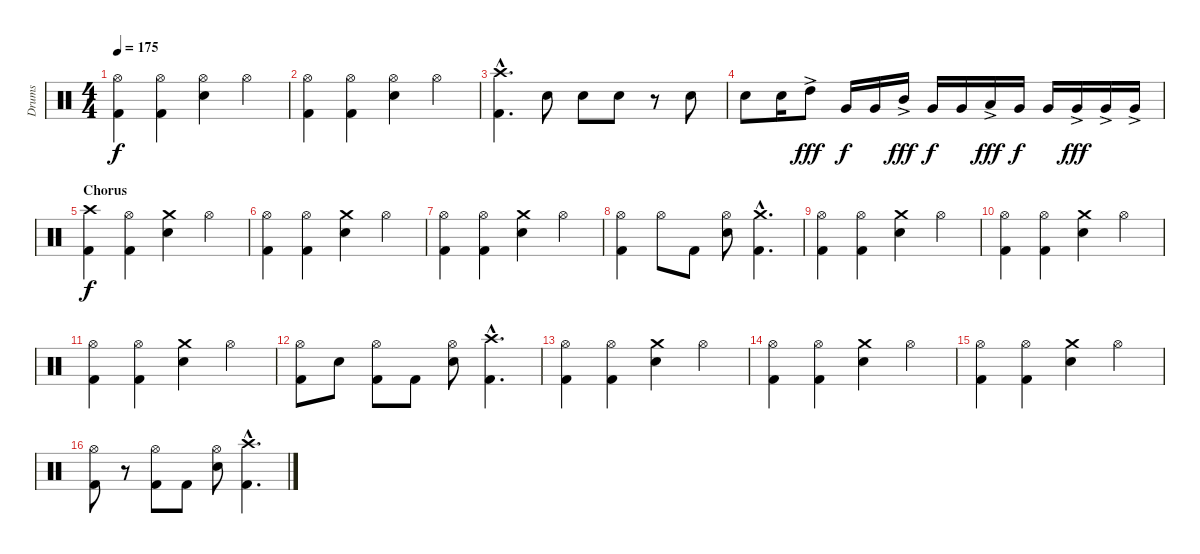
\track ("Drums" "Drums") {instrument percussion}
\staff {score}
\articulation defaults
\ts (4 4)
\tempo 175
\clef neutral
\ks c
("Hi-Hat (open)" "Kick (hit) 2").4{dy f} ("Hi-Hat (open)" "Kick (hit) 2").4 ("Hi-Hat (open)" "Snare (hit) 2").4 "Hi-Hat (open)".4 |
("Hi-Hat (open)" "Kick (hit) 2").4 ("Hi-Hat (open)" "Kick (hit) 2").4 ("Hi-Hat (open)" "Snare (hit) 2").4 "Hi-Hat (open)".4 |
("Crash high (hit)"{hac} "Kick (hit) 2"{hac}).4{d} "Snare (hit) 2".8 "Snare (hit) 2".8 "Snare (hit) 2".8 r.8 "Snare (hit) 2".8 |
"Snare (hit) 2".8 "Snare (hit) 2".16 "High Tom (hit)"{ac}.8{dy fff} "Very Low Tom (hit)".16{dy f} "Very Low Tom (hit)".16 "Mid Tom (hit)"{ac}.16{dy fff} "Very Low Tom (hit)".16{dy f} "Very Low Tom (hit)".16 "Low Tom (hit)"{ac}.16{dy fff} "Very Low Tom (hit)".16{dy f} "Very Low Tom (hit)".16 "Very Low Tom (hit)"{ac}.16{dy fff} "Very Low Tom (hit)"{ac}.16 "Very Low Tom (hit)"{ac}.16 |
\section ("" "Chorus")
("Crash high (hit)" "Kick (hit) 2").4{dy f} ("Hi-Hat (open)" "Kick (hit) 2").4 ("Crash medium (hit)" "Snare (hit) 2").4 "Hi-Hat (open)".4 |
("Hi-Hat (open)" "Kick (hit) 2").4 ("Hi-Hat (open)" "Kick (hit) 2").4 ("Crash medium (hit)" "Snare (hit) 2").4 "Hi-Hat (open)".4 |
("Hi-Hat (open)" "Kick (hit) 2").4 ("Hi-Hat (open)" "Kick (hit) 2").4 ("Crash medium (hit)" "Snare (hit) 2").4 "Hi-Hat (open)".4 |
("Hi-Hat (open)" "Kick (hit) 2").4 "Hi-Hat (open)".8 "Kick (hit) 2".8 ("Hi-Hat (open)" "Snare (hit) 2").8 ("Crash medium (hit)"{hac} "Kick (hit) 2"{hac}).4{d} |
("Hi-Hat (open)" "Kick (hit) 2").4 ("Hi-Hat (open)" "Kick (hit) 2").4 ("Crash medium (hit)" "Snare (hit) 2").4 "Hi-Hat (open)".4 |
("Hi-Hat (open)" "Kick (hit) 2").4 ("Hi-Hat (open)" "Kick (hit) 2").4 ("Crash medium (hit)" "Snare (hit) 2").4 "Hi-Hat (open)".4 |
("Hi-Hat (open)" "Kick (hit) 2").4 ("Hi-Hat (open)" "Kick (hit) 2").4 ("Crash medium (hit)" "Snare (hit) 2").4 "Hi-Hat (open)".4 |
("Hi-Hat (open)" "Kick (hit) 2").8 "Snare (hit) 2".8 ("Hi-Hat (open)" "Kick (hit) 2").8 "Kick (hit) 2".8 ("Hi-Hat (open)" "Snare (hit) 2").8 ("Crash high (hit)"{hac} "Kick (hit) 2"{hac}).4{d} |
("Hi-Hat (open)" "Kick (hit) 2").4 ("Hi-Hat (open)" "Kick (hit) 2").4 ("Crash medium (hit)" "Snare (hit) 2").4 "Hi-Hat (open)".4 |
("Hi-Hat (open)" "Kick (hit) 2").4 ("Hi-Hat (open)" "Kick (hit) 2").4 ("Crash medium (hit)" "Snare (hit) 2").4 "Hi-Hat (open)".4 |
("Hi-Hat (open)" "Kick (hit) 2").4 ("Hi-Hat (open)" "Kick (hit) 2").4 ("Crash medium (hit)" "Snare (hit) 2").4 "Hi-Hat (open)".4 |
("Hi-Hat (open)" "Kick (hit) 2").8 r.8 ("Hi-Hat (open)" "Kick (hit) 2").8 "Kick (hit) 2".8 ("Hi-Hat (open)" "Snare (hit) 2").8 ("Crash high (hit)"{hac} "Kick (hit) 2"{hac}).4{d}
